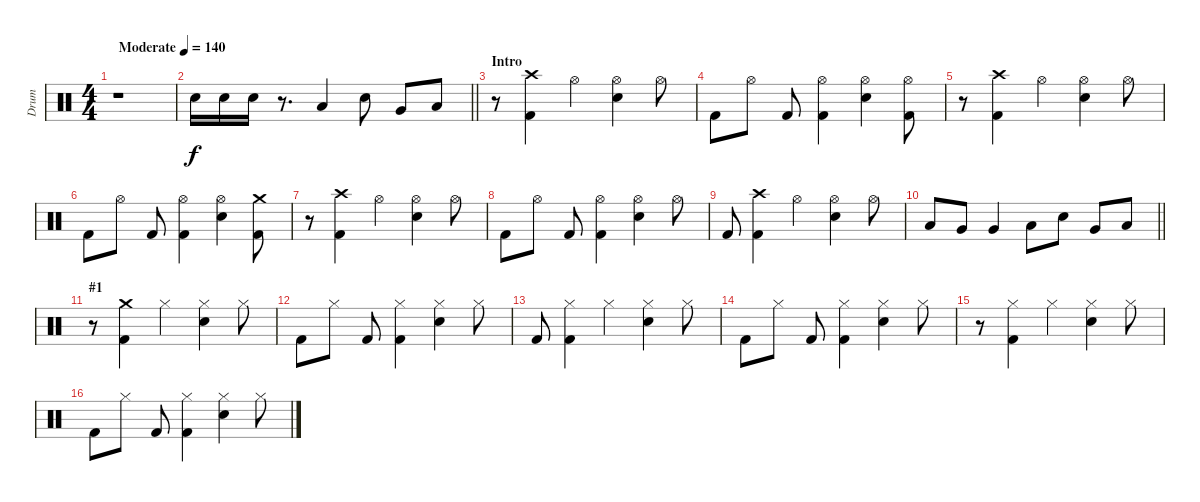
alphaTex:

\track ("Drum" "Drum") {instrument percussion}
\staff {score}
\articulation defaults
\ts (4 4)
\tempo (140 "Moderate")
\clef neutral
\ks c
r.1{dy f} |
\barLineRight lightlight "Electric Snare (hit)".16 "Electric Snare (hit)".16 "Electric Snare (hit)".16
r.8{d} "Low Tom (hit)".4 "Electric Snare (hit)".8 "Very Low Tom (hit)".8 "Low Floor Tom (hit)".8 |
\section ("" "Intro")
r.8 ("Kick (hit) 2" "Crash high (hit)").4 "Hi-Hat (open)".4 ("Hi-Hat (open)" "Electric Snare (hit)").4 "Hi-Hat (open)".8 |
"Kick (hit) 2".8 "Hi-Hat (open)".8 "Kick (hit) 2".8 ("Hi-Hat (open)" "Kick (hit) 2").4 ("Electric Snare (hit)" "Hi-Hat (open)").4 ("Hi-Hat (open)" "Kick (hit) 2").8 |
r.8 ("Kick (hit) 2" "Crash high (hit)").4 "Hi-Hat (open)".4 ("Hi-Hat (open)" "Electric Snare (hit)").4 "Hi-Hat (open)".8 |
"Kick (hit) 2".8 "Hi-Hat (open)".8 "Kick (hit) 2".8 ("Hi-Hat (open)" "Kick (hit) 2").4 ("Electric Snare (hit)" "Hi-Hat (open)").4 ("Crash medium (hit)" "Kick (hit) 2").8 |
r.8 ("Kick (hit) 2" "Crash high (hit)").4 "Hi-Hat (open)".4 ("Hi-Hat (open)" "Electric Snare (hit)").4 "Hi-Hat (open)".8 |
"Kick (hit) 2".8 "Hi-Hat (open)".8 "Kick (hit) 2".8 ("Hi-Hat (open)" "Kick (hit) 2").4 ("Electric Snare (hit)" "Hi-Hat (open)").4 "Hi-Hat (open)".8 |
"Kick (hit) 2".8 ("Crash high (hit)" "Kick (hit) 2").4 "Hi-Hat (open)".4 ("Hi-Hat (open)" "Electric Snare (hit)").4 "Hi-Hat (open)".8 |
\barLineRight lightlight "Low Tom (hit)".8 "Very Low Tom (hit)".8 "Very Low Tom (hit)".4 "Low Floor Tom (hit)".8 "Electric Snare (hit)".8 "Very Low Tom (hit)".8 "Low Floor Tom (hit)".8
|
\section ("" "#1")
r.8 ("Kick (hit) 2" "Crash medium (hit)").4 "Hi-Hat (closed)".4 ("Hi-Hat (closed)" "Electric Snare (hit)").4 "Hi-Hat (closed)".8 |
"Kick (hit) 2".8 "Hi-Hat (closed)".8 "Kick (hit) 2".8 ("Hi-Hat (closed)" "Kick (hit) 2").4 ("Hi-Hat (closed)" "Electric Snare (hit)").4 "Hi-Hat (closed)".8 |
"Kick (hit) 2".8 ("Hi-Hat (closed)" "Kick (hit) 2").4 "Hi-Hat (closed)".4 ("Electric Snare (hit)" "Hi-Hat (closed)").4 "Hi-Hat (closed)".8 |
"Kick (hit) 2".8 "Hi-Hat (closed)".8 "Kick (hit) 2".8 ("Hi-Hat (closed)" "Kick (hit) 2").4 ("Hi-Hat (closed)" "Electric Snare (hit)").4 "Hi-Hat (closed)".8 |
r.8 ("Hi-Hat (closed)" "Kick (hit) 2").4 "Hi-Hat (closed)".4 ("Electric Snare (hit)" "Hi-Hat (closed)").4 "Hi-Hat (closed)".8 |
"Kick (hit) 2".8 "Hi-Hat (closed)".8 "Kick (hit) 2".8 ("Hi-Hat (closed)" "Kick (hit) 2").4 ("Hi-Hat (closed)" "Electric Snare (hit)").4 "Hi-Hat (closed)".8
